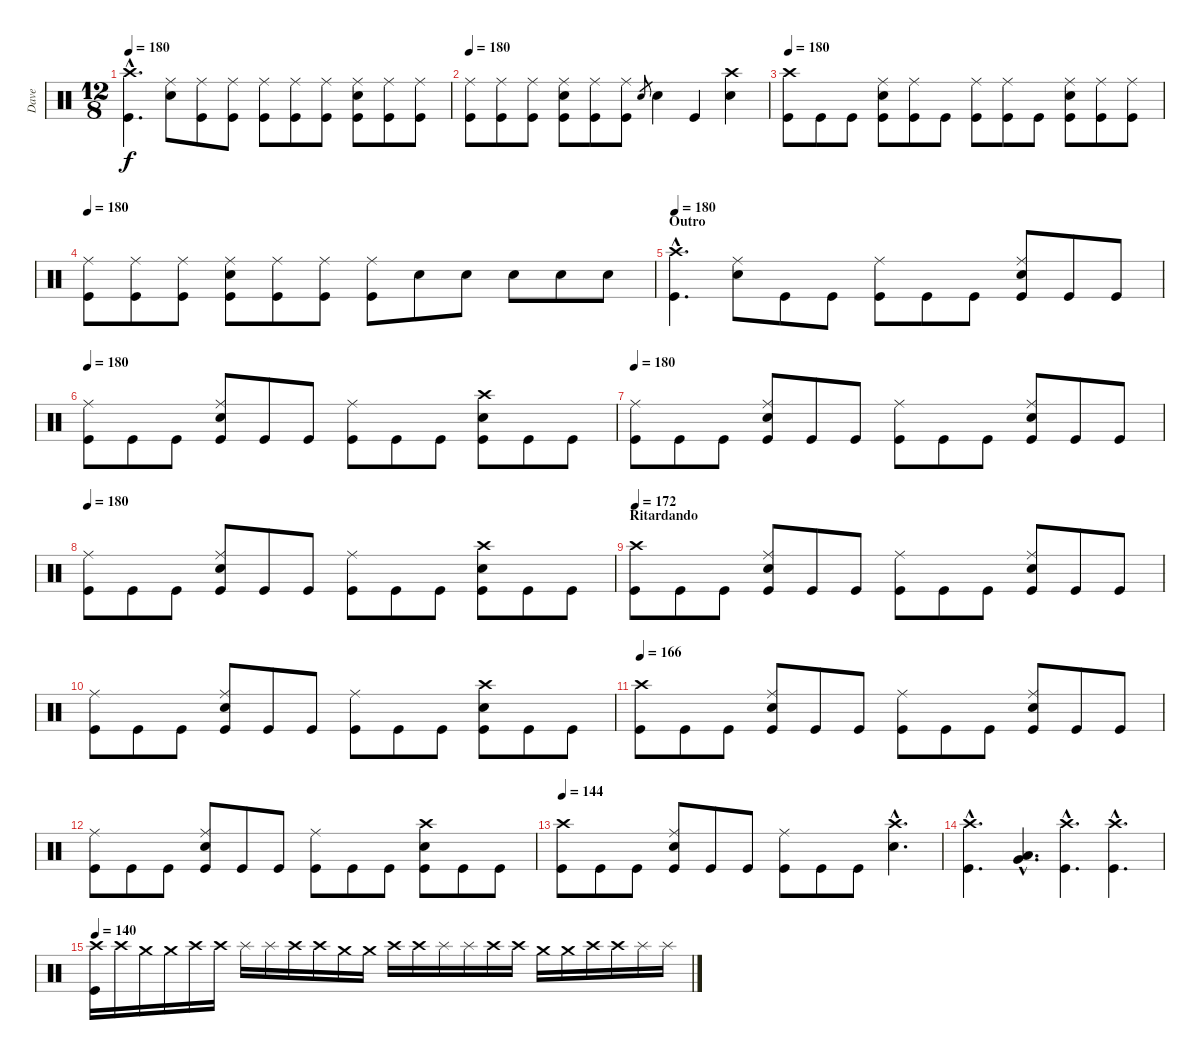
\track ("Dave" "Dave") {instrument percussion}
\staff {score}
\articulation defaults
\ts (12 8)
\tempo 180
\clef neutral
\ks c
("Crash high (hit)"{hac} "Kick (hit)"{hac}).4{d dy f} ("Ride (middle)" "Snare (hit) 2").8 ("Ride (middle)" "Kick (hit)").8 ("Ride (middle)" "Kick (hit)").8 ("Ride (middle)" "Kick (hit)").8 ("Ride (middle)" "Kick (hit)").8 ("Ride (middle)" "Kick (hit)").8 ("Ride (middle)" "Snare (hit) 2" "Kick (hit)").8 ("Ride (middle)" "Kick (hit)").8 ("Ride (middle)" "Kick (hit)").8 |
\tempo 180
("Ride (middle)" "Kick (hit)").8 ("Ride (middle)" "Kick (hit)").8 ("Ride (middle)" "Kick (hit)").8 ("Ride (middle)" "Snare (hit) 2" "Kick (hit)").8 ("Ride (middle)" "Kick (hit)").8 ("Ride (middle)" "Kick (hit)").8 "Snare (hit) 2".8{gr} "Snare (hit) 2".4 "Kick (hit)".4 ("Crash high (hit)" "Snare (hit) 2").4 |
\tempo 180
("Crash high (hit)" "Kick (hit)").8 "Kick (hit)".8 "Kick (hit)".8 ("Ride (middle)" "Snare (hit) 2" "Kick (hit)").8 ("Ride (middle)" "Kick (hit)").8 "Kick (hit)".8 ("Ride (middle)" "Kick (hit)").8 ("Ride (middle)" "Kick (hit)").8 "Kick (hit)".8 ("Ride (middle)" "Snare (hit) 2" "Kick (hit)").8 ("Ride (middle)" "Kick (hit)").8 ("Ride (middle)" "Kick (hit)").8 |
\tempo 180
("Ride (middle)" "Kick (hit)").8 ("Ride (middle)" "Kick (hit)").8 ("Ride (middle)" "Kick (hit)").8 ("Ride (middle)" "Snare (hit) 2" "Kick (hit)").8 ("Ride (middle)" "Kick (hit)").8 ("Ride (middle)" "Kick (hit)").8 ("Ride (middle)" "Kick (hit)").8 "Snare (hit) 2".8 "Snare (hit) 2".8 "Snare (hit) 2".8 "Snare (hit) 2".8 "Snare (hit) 2".8 |
\section ("" "Outro")
\tempo 180
("Crash high (hit)"{hac} "Kick (hit)"{hac}).4{d} ("Ride (middle)" "Snare (hit) 2").8 "Kick (hit)".8 "Kick (hit)".8 ("Ride (middle)" "Kick (hit)").8 "Kick (hit)".8 "Kick (hit)".8 ("Ride (middle)" "Snare (hit) 2" "Kick (hit)").8 "Kick (hit)".8 "Kick (hit)".8 |
\tempo 180
("Ride (middle)" "Kick (hit)").8 "Kick (hit)".8 "Kick (hit)".8 ("Ride (middle)" "Snare (hit) 2" "Kick (hit)").8 "Kick (hit)".8 "Kick (hit)".8 ("Ride (middle)" "Kick (hit)").8 "Kick (hit)".8 "Kick (hit)".8 ("Crash high (hit)" "Snare (hit) 2" "Kick (hit)").8 "Kick (hit)".8 "Kick (hit)".8 |
\tempo 180
("Ride (middle)" "Kick (hit)").8 "Kick (hit)".8 "Kick (hit)".8 ("Ride (middle)" "Snare (hit) 2" "Kick (hit)").8 "Kick (hit)".8 "Kick (hit)".8 ("Ride (middle)" "Kick (hit)").8 "Kick (hit)".8 "Kick (hit)".8 ("Ride (middle)" "Snare (hit) 2" "Kick (hit)").8 "Kick (hit)".8 "Kick (hit)".8 |
\tempo 180
("Ride (middle)" "Kick (hit)").8 "Kick (hit)".8 "Kick (hit)".8 ("Ride (middle)" "Snare (hit) 2" "Kick (hit)").8 "Kick (hit)".8 "Kick (hit)".8 ("Ride (middle)" "Kick (hit)").8 "Kick (hit)".8 "Kick (hit)".8 ("Crash high (hit)" "Snare (hit) 2" "Kick (hit)").8 "Kick (hit)".8 "Kick (hit)".8 |
\section ("" "Ritardando")
\tempo 172
("Crash high (hit)" "Kick (hit)").8 "Kick (hit)".8 "Kick (hit)".8 ("Ride (middle)" "Snare (hit) 2" "Kick (hit)").8 "Kick (hit)".8 "Kick (hit)".8 ("Ride (middle)" "Kick (hit)").8 "Kick (hit)".8 "Kick (hit)".8 ("Ride (middle)" "Snare (hit) 2" "Kick (hit)").8 "Kick (hit)".8 "Kick (hit)".8 |
("Ride (middle)" "Kick (hit)").8 "Kick (hit)".8 "Kick (hit)".8 ("Ride (middle)" "Snare (hit) 2" "Kick (hit)").8 "Kick (hit)".8 "Kick (hit)".8 ("Ride (middle)" "Kick (hit)").8 "Kick (hit)".8 "Kick (hit)".8 ("Crash high (hit)" "Snare (hit) 2" "Kick (hit)").8 "Kick (hit)".8 "Kick (hit)".8 |
\tempo 166
("Crash high (hit)" "Kick (hit)").8 "Kick (hit)".8 "Kick (hit)".8 ("Ride (middle)" "Snare (hit) 2" "Kick (hit)").8 "Kick (hit)".8 "Kick (hit)".8 ("Ride (middle)" "Kick (hit)").8 "Kick (hit)".8 "Kick (hit)".8 ("Ride (middle)" "Snare (hit) 2" "Kick (hit)").8 "Kick (hit)".8 "Kick (hit)".8 |
("Ride (middle)" "Kick (hit)").8 "Kick (hit)".8 "Kick (hit)".8 ("Ride (middle)" "Snare (hit) 2" "Kick (hit)").8 "Kick (hit)".8 "Kick (hit)".8 ("Ride (middle)" "Kick (hit)").8 "Kick (hit)".8 "Kick (hit)".8 ("Crash high (hit)" "Snare (hit) 2" "Kick (hit)").8 "Kick (hit)".8 "Kick (hit)".8 |
\tempo 144
("Crash high (hit)" "Kick (hit)").8 "Kick (hit)".8 "Kick (hit)".8 ("Ride (middle)" "Snare (hit) 2" "Kick (hit)").8 "Kick (hit)".8 "Kick (hit)".8 ("Ride (middle)" "Kick (hit)").8 "Kick (hit)".8 "Kick (hit)".8 ("Crash high (hit)"{hac} "Snare (hit) 2"{hac}).4{d} |
("Crash high (hit)"{hac} "Kick (hit)"{hac}).4{d} ("Very Low Tom (hit)"{hac} "Low Tom (hit)"{hac}).4{d} ("Crash high (hit)"{hac} "Kick (hit)"{hac}).4{d} ("Crash high (hit)"{hac} "Kick (hit)"{hac}).4{d} |
\tempo 140
("Crash high (hit)" "Kick (hit)").16 "Crash high (hit)".16 "Crash medium (hit)".16 "Crash medium (hit)".16 "Crash high (hit)".16 "Crash high (hit)".16 "Splash (hit)".16 "Splash (hit)".16 "Crash high (hit)".16 "Crash high (hit)".16 "Crash medium (hit)".16 "Crash medium (hit)".16 "Crash high (hit)".16 "Crash high (hit)".16 "Splash (hit)".16 "Splash (hit)".16 "Crash high (hit)".16 "Crash high (hit)".16 "Crash medium (hit)".16 "Crash medium (hit)".16 "Crash high (hit)".16 "Crash high (hit)".16 "Splash (hit)".16 "Splash (hit)".16
